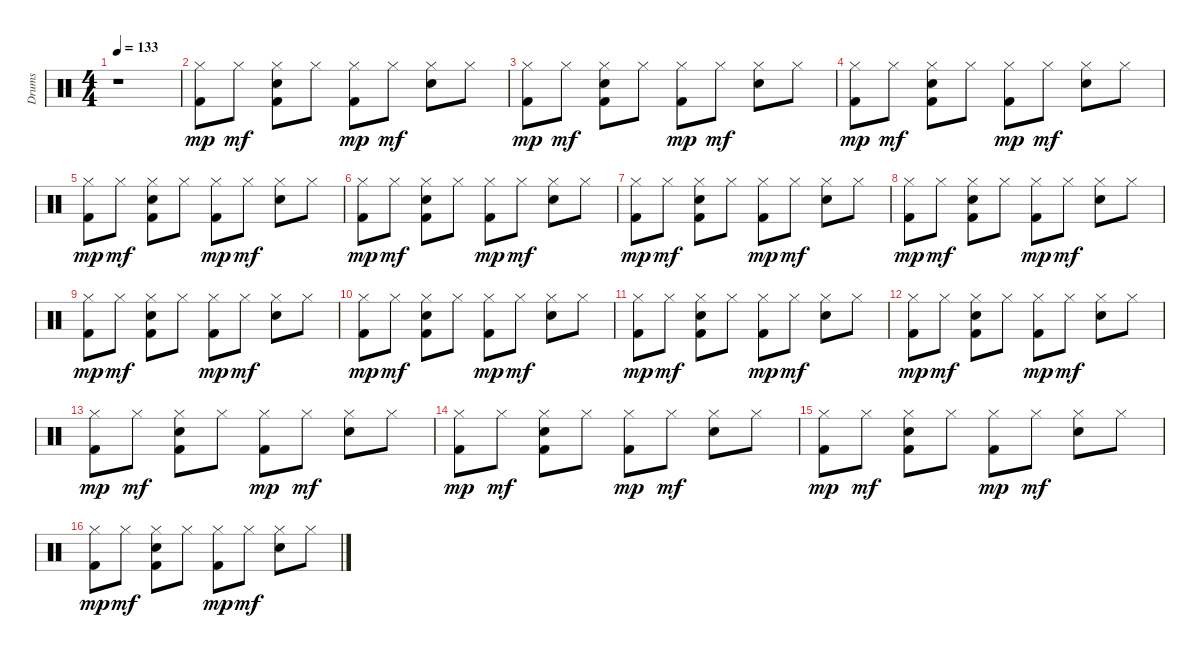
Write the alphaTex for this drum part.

\track ("Drums" "Drums") {instrument percussion}
\staff {score}
\articulation defaults
\ts (4 4)
\tempo 133
\clef neutral
\ks c
r.1{dy mf} |
("Kick (hit) 2" "Hi-Hat (closed)").8{dy mp} "Hi-Hat (closed)".8{dy mf} ("Kick (hit) 2" "Snare (hit) 2" "Hi-Hat (closed)").8 "Hi-Hat (closed)".8 ("Kick (hit) 2" "Hi-Hat (closed)").8{dy mp} "Hi-Hat (closed)".8{dy mf} ("Snare (hit) 2" "Hi-Hat (closed)").8 "Hi-Hat (closed)".8 |
("Kick (hit) 2" "Hi-Hat (closed)").8{dy mp} "Hi-Hat (closed)".8{dy mf} ("Kick (hit) 2" "Snare (hit) 2" "Hi-Hat (closed)").8 "Hi-Hat (closed)".8 ("Kick (hit) 2" "Hi-Hat (closed)").8{dy mp} "Hi-Hat (closed)".8{dy mf} ("Snare (hit) 2" "Hi-Hat (closed)").8 "Hi-Hat (closed)".8 |
("Kick (hit) 2" "Hi-Hat (closed)").8{dy mp} "Hi-Hat (closed)".8{dy mf} ("Kick (hit) 2" "Snare (hit) 2" "Hi-Hat (closed)").8 "Hi-Hat (closed)".8 ("Kick (hit) 2" "Hi-Hat (closed)").8{dy mp} "Hi-Hat (closed)".8{dy mf} ("Snare (hit) 2" "Hi-Hat (closed)").8 "Hi-Hat (closed)".8 |
("Kick (hit) 2" "Hi-Hat (closed)").8{dy mp} "Hi-Hat (closed)".8{dy mf} ("Kick (hit) 2" "Snare (hit) 2" "Hi-Hat (closed)").8 "Hi-Hat (closed)".8 ("Kick (hit) 2" "Hi-Hat (closed)").8{dy mp} "Hi-Hat (closed)".8{dy mf} ("Snare (hit) 2" "Hi-Hat (closed)").8 "Hi-Hat (closed)".8 |
("Kick (hit) 2" "Hi-Hat (closed)").8{dy mp} "Hi-Hat (closed)".8{dy mf} ("Kick (hit) 2" "Snare (hit) 2" "Hi-Hat (closed)").8 "Hi-Hat (closed)".8 ("Kick (hit) 2" "Hi-Hat (closed)").8{dy mp} "Hi-Hat (closed)".8{dy mf} ("Snare (hit) 2" "Hi-Hat (closed)").8 "Hi-Hat (closed)".8 |
("Kick (hit) 2" "Hi-Hat (closed)").8{dy mp} "Hi-Hat (closed)".8{dy mf} ("Kick (hit) 2" "Snare (hit) 2" "Hi-Hat (closed)").8 "Hi-Hat (closed)".8 ("Kick (hit) 2" "Hi-Hat (closed)").8{dy mp} "Hi-Hat (closed)".8{dy mf} ("Snare (hit) 2" "Hi-Hat (closed)").8 "Hi-Hat (closed)".8 |
("Kick (hit) 2" "Hi-Hat (closed)").8{dy mp} "Hi-Hat (closed)".8{dy mf} ("Kick (hit) 2" "Snare (hit) 2" "Hi-Hat (closed)").8 "Hi-Hat (closed)".8 ("Kick (hit) 2" "Hi-Hat (closed)").8{dy mp} "Hi-Hat (closed)".8{dy mf} ("Snare (hit) 2" "Hi-Hat (closed)").8 "Hi-Hat (closed)".8 |
("Kick (hit) 2" "Hi-Hat (closed)").8{dy mp} "Hi-Hat (closed)".8{dy mf} ("Kick (hit) 2" "Snare (hit) 2" "Hi-Hat (closed)").8 "Hi-Hat (closed)".8 ("Kick (hit) 2" "Hi-Hat (closed)").8{dy mp} "Hi-Hat (closed)".8{dy mf} ("Snare (hit) 2" "Hi-Hat (closed)").8 "Hi-Hat (closed)".8 |
("Kick (hit) 2" "Hi-Hat (closed)").8{dy mp} "Hi-Hat (closed)".8{dy mf} ("Kick (hit) 2" "Snare (hit) 2" "Hi-Hat (closed)").8 "Hi-Hat (closed)".8 ("Kick (hit) 2" "Hi-Hat (closed)").8{dy mp} "Hi-Hat (closed)".8{dy mf} ("Snare (hit) 2" "Hi-Hat (closed)").8 "Hi-Hat (closed)".8 |
("Kick (hit) 2" "Hi-Hat (closed)").8{dy mp} "Hi-Hat (closed)".8{dy mf} ("Kick (hit) 2" "Snare (hit) 2" "Hi-Hat (closed)").8 "Hi-Hat (closed)".8 ("Kick (hit) 2" "Hi-Hat (closed)").8{dy mp} "Hi-Hat (closed)".8{dy mf} ("Snare (hit) 2" "Hi-Hat (closed)").8 "Hi-Hat (closed)".8 |
("Kick (hit) 2" "Hi-Hat (closed)").8{dy mp} "Hi-Hat (closed)".8{dy mf} ("Kick (hit) 2" "Snare (hit) 2" "Hi-Hat (closed)").8 "Hi-Hat (closed)".8 ("Kick (hit) 2" "Hi-Hat (closed)").8{dy mp} "Hi-Hat (closed)".8{dy mf} ("Snare (hit) 2" "Hi-Hat (closed)").8 "Hi-Hat (closed)".8 |
("Kick (hit) 2" "Hi-Hat (closed)").8{dy mp} "Hi-Hat (closed)".8{dy mf} ("Kick (hit) 2" "Snare (hit) 2" "Hi-Hat (closed)").8 "Hi-Hat (closed)".8 ("Kick (hit) 2" "Hi-Hat (closed)").8{dy mp} "Hi-Hat (closed)".8{dy mf} ("Snare (hit) 2" "Hi-Hat (closed)").8 "Hi-Hat (closed)".8 |
("Kick (hit) 2" "Hi-Hat (closed)").8{dy mp} "Hi-Hat (closed)".8{dy mf} ("Kick (hit) 2" "Snare (hit) 2" "Hi-Hat (closed)").8 "Hi-Hat (closed)".8 ("Kick (hit) 2" "Hi-Hat (closed)").8{dy mp} "Hi-Hat (closed)".8{dy mf} ("Snare (hit) 2" "Hi-Hat (closed)").8 "Hi-Hat (closed)".8 |
("Kick (hit) 2" "Hi-Hat (closed)").8{dy mp} "Hi-Hat (closed)".8{dy mf} ("Kick (hit) 2" "Snare (hit) 2" "Hi-Hat (closed)").8 "Hi-Hat (closed)".8 ("Kick (hit) 2" "Hi-Hat (closed)").8{dy mp} "Hi-Hat (closed)".8{dy mf} ("Snare (hit) 2" "Hi-Hat (closed)").8 "Hi-Hat (closed)".8 |
("Kick (hit) 2" "Hi-Hat (closed)").8{dy mp} "Hi-Hat (closed)".8{dy mf} ("Kick (hit) 2" "Snare (hit) 2" "Hi-Hat (closed)").8 "Hi-Hat (closed)".8 ("Kick (hit) 2" "Hi-Hat (closed)").8{dy mp} "Hi-Hat (closed)".8{dy mf} ("Snare (hit) 2" "Hi-Hat (closed)").8 "Hi-Hat (closed)".8
